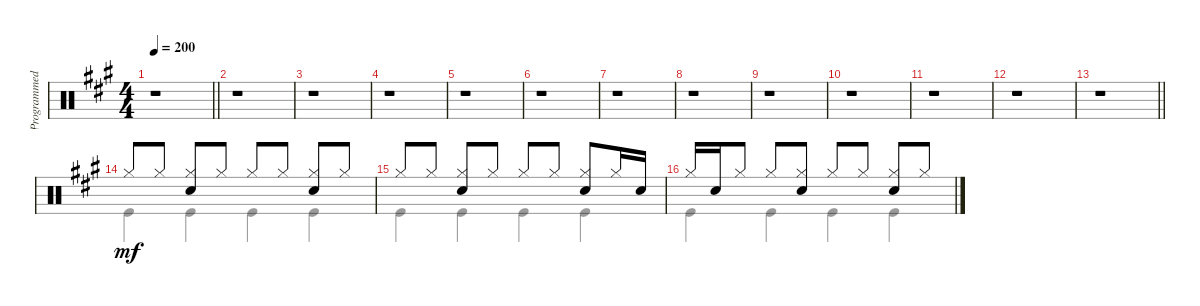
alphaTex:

\track ("Programmed Drums" "Programmed") {instrument percussion}
\staff {score}
\articulation defaults
\voice
\ts (4 4)
\tempo 200
\clef neutral
\barLineRight lightlight
\ks a
r.1{dy mf} |
\section ("" "")
r.1 |
r.1 |
r.1 |
r.1 |
r.1 |
r.1 |
r.1 |
r.1 |
r.1 |
r.1 |
r.1 |
\barLineRight lightlight
r.1 |
\section ("" "")
"Hi-Hat (closed)".8 "Hi-Hat (closed)".8 ("Hi-Hat (closed)" "Snare (hit) 2").8 "Hi-Hat (closed)".8 "Hi-Hat (closed)".8 "Hi-Hat (closed)".8 ("Hi-Hat (closed)" "Snare (hit) 2").8 "Hi-Hat (closed)".8 |
"Hi-Hat (closed)".8 "Hi-Hat (closed)".8 ("Hi-Hat (closed)" "Snare (hit) 2").8 "Hi-Hat (closed)".8 "Hi-Hat (closed)".8 "Hi-Hat (closed)".8 ("Hi-Hat (closed)" "Snare (hit) 2").8 "Hi-Hat (closed)".16 "Snare (hit) 2".16 |
"Hi-Hat (closed)".16 "Snare (hit) 2".16 "Hi-Hat (closed)".8 "Hi-Hat (closed)".8 ("Hi-Hat (closed)" "Snare (hit) 2").8 "Hi-Hat (closed)".8 "Hi-Hat (closed)".8 ("Hi-Hat (closed)" "Snare (hit) 2").8 "Hi-Hat (closed)".8
\voice
\clef neutral
\ottava regular
\simile none
\barLineRight lightlight
\ks a
|
|
|
|
|
|
|
|
|
|
|
|
\barLineRight lightlight
|
"Kick (hit)".4 "Kick (hit)".4 "Kick (hit)".4 "Kick (hit)".4 |
"Kick (hit)".4 "Kick (hit)".4 "Kick (hit)".4 "Kick (hit)".4 |
"Kick (hit)".4 "Kick (hit)".4 "Kick (hit)".4 "Kick (hit)".4
